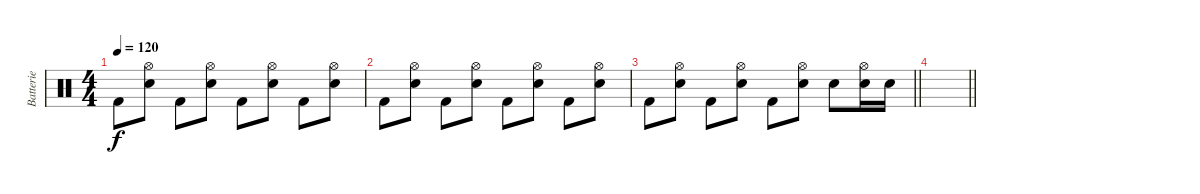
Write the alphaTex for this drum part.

\track ("Batterie" "Batterie") {instrument percussion}
\staff {score}
\articulation defaults
\ts (4 4)
\tempo 120
\clef neutral
\ks c "Kick (hit) 2".8{dy f}
("Hi-Hat (open)" "Electric Snare (hit)").8 "Kick (hit) 2".8 ("Hi-Hat (open)" "Electric Snare (hit)").8 "Kick (hit) 2".8 ("Hi-Hat (open)" "Electric Snare (hit)").8 "Kick (hit) 2".8 ("Hi-Hat (open)" "Electric Snare (hit)").8 |
"Kick (hit) 2".8 ("Hi-Hat (open)" "Electric Snare (hit)").8 "Kick (hit) 2".8 ("Hi-Hat (open)" "Electric Snare (hit)").8 "Kick (hit) 2".8 ("Hi-Hat (open)" "Electric Snare (hit)").8 "Kick (hit) 2".8 ("Hi-Hat (open)" "Electric Snare (hit)").8 |
\barLineRight lightlight "Kick (hit) 2".8
("Hi-Hat (open)" "Electric Snare (hit)").8 "Kick (hit) 2".8 ("Hi-Hat (open)" "Electric Snare (hit)").8 "Kick (hit) 2".8 ("Hi-Hat (open)" "Electric Snare (hit)").8 "Electric Snare (hit)".8 ("Hi-Hat (open)" "Electric Snare (hit)").16 "Electric Snare (hit)".16 |
\barLineRight lightlight
